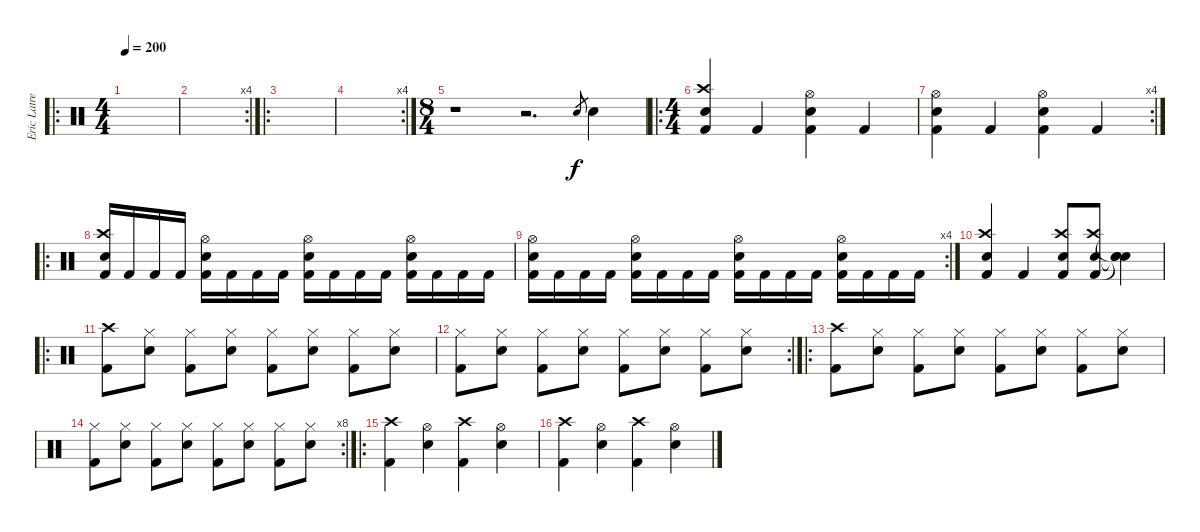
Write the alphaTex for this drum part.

\track ("Eric Latreille" "Eric Latre") {instrument percussion}
\staff {score}
\articulation defaults
\ro
\ts (4 4)
\tempo 200
\clef neutral
\ks c
|
\rc 4
|
\ro
|
\rc 4
|
\ts (8 4)
r.1 r.2{d} "Snare (hit) 2".8{gr} "Snare (hit) 2".4 |
\ro
\ts (4 4)
("Crash high (hit)" "Snare (hit) 2" "Kick (hit) 2").4 "Kick (hit) 2".4 ("Hi-Hat (open)" "Snare (hit) 2" "Kick (hit) 2").4 "Kick (hit) 2".4 |
\rc 4
("Hi-Hat (open)" "Snare (hit) 2" "Kick (hit) 2").4 "Kick (hit) 2".4 ("Hi-Hat (open)" "Snare (hit) 2" "Kick (hit) 2").4 "Kick (hit) 2".4 |
\ro
("Crash high (hit)" "Snare (hit) 2" "Kick (hit) 2").16 "Kick (hit) 2".16 "Kick (hit) 2".16 "Kick (hit) 2".16 ("Hi-Hat (open)" "Snare (hit) 2" "Kick (hit) 2").16 "Kick (hit) 2".16 "Kick (hit) 2".16 "Kick (hit) 2".16 ("Hi-Hat (open)" "Snare (hit) 2" "Kick (hit) 2").16 "Kick (hit) 2".16 "Kick (hit) 2".16 "Kick (hit) 2".16 ("Hi-Hat (open)" "Snare (hit) 2" "Kick (hit) 2").16 "Kick (hit) 2".16 "Kick (hit) 2".16 "Kick (hit) 2".16 |
\rc 4
("Hi-Hat (open)" "Snare (hit) 2" "Kick (hit) 2").16 "Kick (hit) 2".16 "Kick (hit) 2".16 "Kick (hit) 2".16 ("Hi-Hat (open)" "Snare (hit) 2" "Kick (hit) 2").16 "Kick (hit) 2".16 "Kick (hit) 2".16 "Kick (hit) 2".16 ("Hi-Hat (open)" "Snare (hit) 2" "Kick (hit) 2").16 "Kick (hit) 2".16 "Kick (hit) 2".16 "Kick (hit) 2".16 ("Hi-Hat (open)" "Snare (hit) 2" "Kick (hit) 2").16 "Kick (hit) 2".16 "Kick (hit) 2".16 "Kick (hit) 2".16 |
("Crash high (hit)" "Snare (hit) 2" "Kick (hit) 2").4 "Kick (hit) 2".4 ("Crash high (hit)" "Snare (hit) 2" "Kick (hit) 2").8 ("Crash high (hit)" "Snare (hit) 2" "Kick (hit) 2").8 ("Snare (hit)"{t} "Snare (hit)"{t} "Snare (hit)"{t}).4 |
\ro
("Crash high (hit)" "Kick (hit) 2").8 ("Hi-Hat (closed)" "Snare (hit) 2").8 ("Hi-Hat (closed)" "Kick (hit) 2").8 ("Hi-Hat (closed)" "Snare (hit) 2").8 ("Hi-Hat (closed)" "Kick (hit) 2").8 ("Hi-Hat (closed)" "Snare (hit) 2").8 ("Hi-Hat (closed)" "Kick (hit) 2").8 ("Hi-Hat (closed)" "Snare (hit) 2").8 |
\rc 2
("Hi-Hat (closed)" "Kick (hit) 2").8 ("Hi-Hat (closed)" "Snare (hit) 2").8 ("Hi-Hat (closed)" "Kick (hit) 2").8 ("Hi-Hat (closed)" "Snare (hit) 2").8 ("Hi-Hat (closed)" "Kick (hit) 2").8 ("Hi-Hat (closed)" "Snare (hit) 2").8 ("Hi-Hat (closed)" "Kick (hit) 2").8 ("Hi-Hat (closed)" "Snare (hit) 2").8 |
\ro
("Crash high (hit)" "Kick (hit) 2").8 ("Hi-Hat (closed)" "Snare (hit) 2").8 ("Hi-Hat (closed)" "Kick (hit) 2").8 ("Hi-Hat (closed)" "Snare (hit) 2").8 ("Hi-Hat (closed)" "Kick (hit) 2").8 ("Hi-Hat (closed)" "Snare (hit) 2").8 ("Hi-Hat (closed)" "Kick (hit) 2").8 ("Hi-Hat (closed)" "Snare (hit) 2").8 |
\rc 8
("Hi-Hat (closed)" "Kick (hit) 2").8 ("Hi-Hat (closed)" "Snare (hit) 2").8 ("Hi-Hat (closed)" "Kick (hit) 2").8 ("Hi-Hat (closed)" "Snare (hit) 2").8 ("Hi-Hat (closed)" "Kick (hit) 2").8 ("Hi-Hat (closed)" "Snare (hit) 2").8 ("Hi-Hat (closed)" "Kick (hit) 2").8 ("Hi-Hat (closed)" "Snare (hit) 2").8 |
\ro
("Crash high (hit)" "Kick (hit) 2").4 ("Hi-Hat (open)" "Snare (hit) 2").4 ("Crash high (hit)" "Kick (hit) 2").4 ("Hi-Hat (open)" "Snare (hit) 2").4 |
("Crash high (hit)" "Kick (hit) 2").4 ("Hi-Hat (open)" "Snare (hit) 2").4 ("Crash high (hit)" "Kick (hit) 2").4 ("Hi-Hat (open)" "Snare (hit) 2").4
